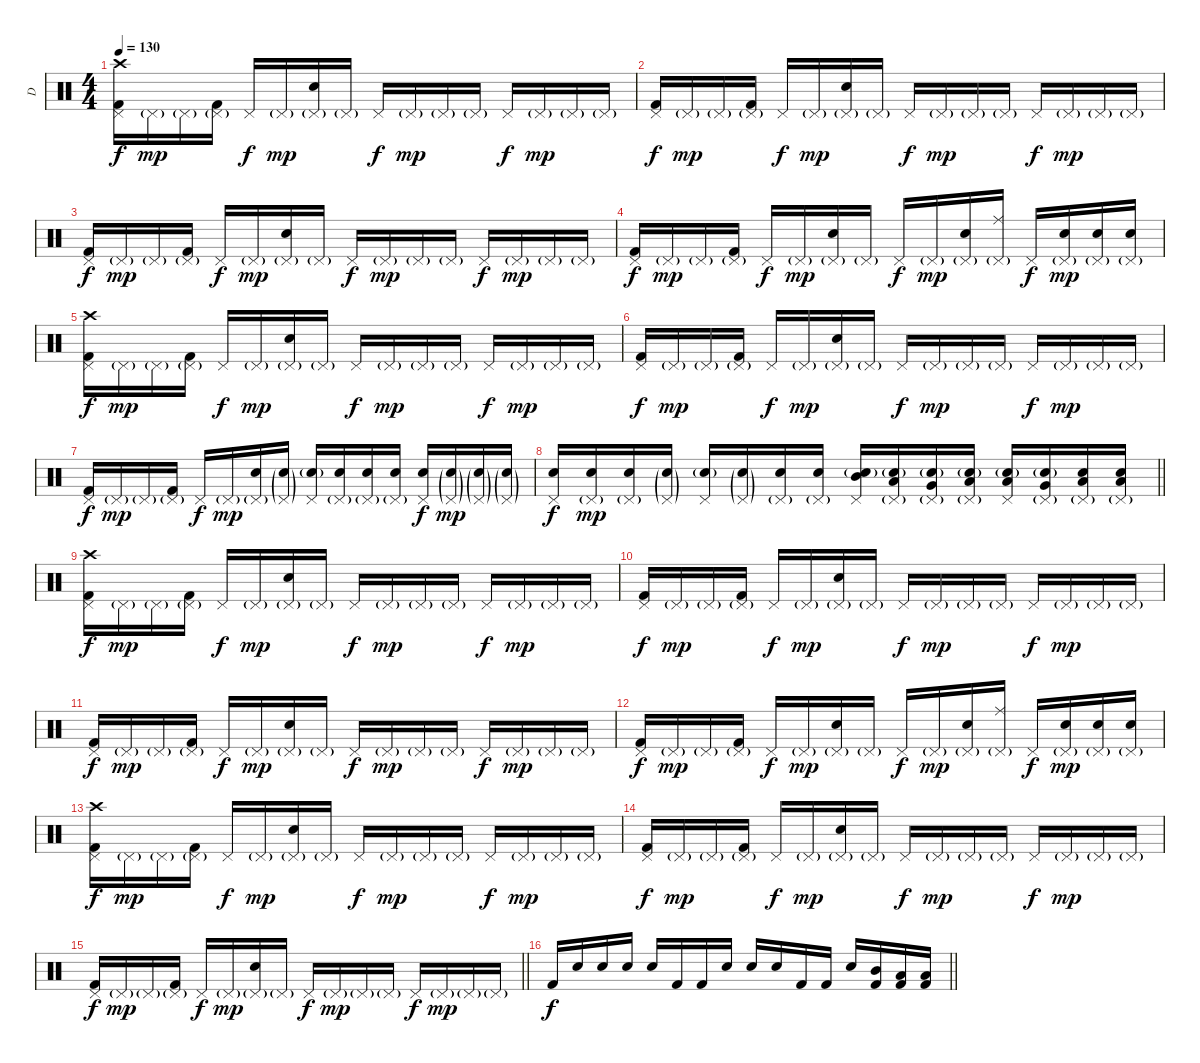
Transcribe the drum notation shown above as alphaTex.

\track ("D" "D") {instrument percussion}
\staff {score}
\articulation defaults
\ts (4 4)
\tempo 130
\clef neutral
\ks c
("Crash high (hit)" "Kick (hit) 2" "Pedal Hi-Hat (hit)").16{dy f} "Pedal Hi-Hat (hit)"{g}.16{dy mp} "Pedal Hi-Hat (hit)"{g}.16 ("Kick (hit) 2" "Pedal Hi-Hat (hit)"{g}).16 "Pedal Hi-Hat (hit)".16{dy f} "Pedal Hi-Hat (hit)"{g}.16{dy mp} ("Electric Snare (hit)" "Pedal Hi-Hat (hit)"{g}).16 "Pedal Hi-Hat (hit)"{g}.16 "Pedal Hi-Hat (hit)".16{dy f} "Pedal Hi-Hat (hit)"{g}.16{dy mp} "Pedal Hi-Hat (hit)"{g}.16 "Pedal Hi-Hat (hit)"{g}.16 "Pedal Hi-Hat (hit)".16{dy f} "Pedal Hi-Hat (hit)"{g}.16{dy mp} "Pedal Hi-Hat (hit)"{g}.16 "Pedal Hi-Hat (hit)"{g}.16 |
("Kick (hit) 2" "Pedal Hi-Hat (hit)").16{dy f} "Pedal Hi-Hat (hit)"{g}.16{dy mp} "Pedal Hi-Hat (hit)"{g}.16 ("Kick (hit) 2" "Pedal Hi-Hat (hit)"{g}).16 "Pedal Hi-Hat (hit)".16{dy f} "Pedal Hi-Hat (hit)"{g}.16{dy mp} ("Electric Snare (hit)" "Pedal Hi-Hat (hit)"{g}).16 "Pedal Hi-Hat (hit)"{g}.16 "Pedal Hi-Hat (hit)".16{dy f} "Pedal Hi-Hat (hit)"{g}.16{dy mp} "Pedal Hi-Hat (hit)"{g}.16 "Pedal Hi-Hat (hit)"{g}.16 "Pedal Hi-Hat (hit)".16{dy f} "Pedal Hi-Hat (hit)"{g}.16{dy mp} "Pedal Hi-Hat (hit)"{g}.16 "Pedal Hi-Hat (hit)"{g}.16 |
("Kick (hit) 2" "Pedal Hi-Hat (hit)").16{dy f} "Pedal Hi-Hat (hit)"{g}.16{dy mp} "Pedal Hi-Hat (hit)"{g}.16 ("Kick (hit) 2" "Pedal Hi-Hat (hit)"{g}).16 "Pedal Hi-Hat (hit)".16{dy f} "Pedal Hi-Hat (hit)"{g}.16{dy mp} ("Electric Snare (hit)" "Pedal Hi-Hat (hit)"{g}).16 "Pedal Hi-Hat (hit)"{g}.16 "Pedal Hi-Hat (hit)".16{dy f} "Pedal Hi-Hat (hit)"{g}.16{dy mp} "Pedal Hi-Hat (hit)"{g}.16 "Pedal Hi-Hat (hit)"{g}.16 "Pedal Hi-Hat (hit)".16{dy f} "Pedal Hi-Hat (hit)"{g}.16{dy mp} "Pedal Hi-Hat (hit)"{g}.16 "Pedal Hi-Hat (hit)"{g}.16 |
("Kick (hit) 2" "Pedal Hi-Hat (hit)").16{dy f} "Pedal Hi-Hat (hit)"{g}.16{dy mp} "Pedal Hi-Hat (hit)"{g}.16 ("Kick (hit) 2" "Pedal Hi-Hat (hit)"{g}).16 "Pedal Hi-Hat (hit)".16{dy f} "Pedal Hi-Hat (hit)"{g}.16{dy mp} ("Electric Snare (hit)" "Pedal Hi-Hat (hit)"{g}).16 "Pedal Hi-Hat (hit)"{g}.16 "Pedal Hi-Hat (hit)".16{dy f} "Pedal Hi-Hat (hit)"{g}.16{dy mp} ("Electric Snare (hit)" "Pedal Hi-Hat (hit)"{g}).16 ("Ride (middle)" "Pedal Hi-Hat (hit)"{g}).16 "Pedal Hi-Hat (hit)".16{dy f} ("Electric Snare (hit)" "Pedal Hi-Hat (hit)"{g}).16{dy mp} ("Electric Snare (hit)" "Pedal Hi-Hat (hit)"{g}).16 ("Electric Snare (hit)" "Pedal Hi-Hat (hit)"{g}).16 |
("Crash high (hit)" "Kick (hit) 2" "Pedal Hi-Hat (hit)").16{dy f} "Pedal Hi-Hat (hit)"{g}.16{dy mp} "Pedal Hi-Hat (hit)"{g}.16 ("Kick (hit) 2" "Pedal Hi-Hat (hit)"{g}).16 "Pedal Hi-Hat (hit)".16{dy f} "Pedal Hi-Hat (hit)"{g}.16{dy mp} ("Electric Snare (hit)" "Pedal Hi-Hat (hit)"{g}).16 "Pedal Hi-Hat (hit)"{g}.16 "Pedal Hi-Hat (hit)".16{dy f} "Pedal Hi-Hat (hit)"{g}.16{dy mp} "Pedal Hi-Hat (hit)"{g}.16 "Pedal Hi-Hat (hit)"{g}.16 "Pedal Hi-Hat (hit)".16{dy f} "Pedal Hi-Hat (hit)"{g}.16{dy mp} "Pedal Hi-Hat (hit)"{g}.16 "Pedal Hi-Hat (hit)"{g}.16 |
("Kick (hit) 2" "Pedal Hi-Hat (hit)").16{dy f} "Pedal Hi-Hat (hit)"{g}.16{dy mp} "Pedal Hi-Hat (hit)"{g}.16 ("Kick (hit) 2" "Pedal Hi-Hat (hit)"{g}).16 "Pedal Hi-Hat (hit)".16{dy f} "Pedal Hi-Hat (hit)"{g}.16{dy mp} ("Electric Snare (hit)" "Pedal Hi-Hat (hit)"{g}).16 "Pedal Hi-Hat (hit)"{g}.16 "Pedal Hi-Hat (hit)".16{dy f} "Pedal Hi-Hat (hit)"{g}.16{dy mp} "Pedal Hi-Hat (hit)"{g}.16 "Pedal Hi-Hat (hit)"{g}.16 "Pedal Hi-Hat (hit)".16{dy f} "Pedal Hi-Hat (hit)"{g}.16{dy mp} "Pedal Hi-Hat (hit)"{g}.16 "Pedal Hi-Hat (hit)"{g}.16 |
("Kick (hit) 2" "Pedal Hi-Hat (hit)").16{dy f} "Pedal Hi-Hat (hit)"{g}.16{dy mp} "Pedal Hi-Hat (hit)"{g}.16 ("Kick (hit) 2" "Pedal Hi-Hat (hit)"{g}).16 "Pedal Hi-Hat (hit)".16{dy f} "Pedal Hi-Hat (hit)"{g}.16{dy mp} ("Electric Snare (hit)" "Pedal Hi-Hat (hit)"{g}).16 ("Electric Snare (hit)"{g} "Pedal Hi-Hat (hit)"{g}).16 ("Electric Snare (hit)"{g} "Pedal Hi-Hat (hit)").16 ("Electric Snare (hit)" "Pedal Hi-Hat (hit)"{g}).16 ("Electric Snare (hit)" "Pedal Hi-Hat (hit)"{g}).16 ("Electric Snare (hit)" "Pedal Hi-Hat (hit)"{g}).16 ("Electric Snare (hit)" "Pedal Hi-Hat (hit)").16{dy f} ("Electric Snare (hit)"{g} "Pedal Hi-Hat (hit)"{g}).16{dy mp} ("Electric Snare (hit)"{g} "Pedal Hi-Hat (hit)"{g}).16 ("Electric Snare (hit)"{g} "Pedal Hi-Hat (hit)"{g}).16 |
\barLineRight lightlight
("Electric Snare (hit)" "Pedal Hi-Hat (hit)").16{dy f} ("Electric Snare (hit)" "Pedal Hi-Hat (hit)"{g}).16{dy mp} ("Electric Snare (hit)" "Pedal Hi-Hat (hit)"{g}).16 ("Electric Snare (hit)"{g} "Pedal Hi-Hat (hit)"{g}).16 ("Electric Snare (hit)"{g} "Pedal Hi-Hat (hit)").16 ("Electric Snare (hit)"{g} "Pedal Hi-Hat (hit)"{g}).16 ("Electric Snare (hit)" "Pedal Hi-Hat (hit)"{g}).16 ("Electric Snare (hit)" "Pedal Hi-Hat (hit)"{g}).16 ("Electric Snare (hit)"{g} "Mid Tom (hit)" "Pedal Hi-Hat (hit)").16 ("Electric Snare (hit)"{g} "Low Tom (hit)" "Pedal Hi-Hat (hit)"{g}).16 ("Electric Snare (hit)"{g} "Very Low Tom (hit)" "Pedal Hi-Hat (hit)"{g}).16 ("Electric Snare (hit)"{g} "Low Floor Tom (hit)" "Pedal Hi-Hat (hit)"{g}).16 ("Electric Snare (hit)"{g} "Low Tom (hit)" "Pedal Hi-Hat (hit)").16 ("Electric Snare (hit)"{g} "Very Low Tom (hit)" "Pedal Hi-Hat (hit)"{g}).16 ("Electric Snare (hit)" "Low Floor Tom (hit)" "Pedal Hi-Hat (hit)"{g}).16 ("Electric Snare (hit)" "Low Floor Tom (hit)" "Pedal Hi-Hat (hit)"{g}).16 |
("Crash high (hit)" "Kick (hit) 2" "Pedal Hi-Hat (hit)").16{dy f} "Pedal Hi-Hat (hit)"{g}.16{dy mp} "Pedal Hi-Hat (hit)"{g}.16 ("Kick (hit) 2" "Pedal Hi-Hat (hit)"{g}).16 "Pedal Hi-Hat (hit)".16{dy f} "Pedal Hi-Hat (hit)"{g}.16{dy mp} ("Electric Snare (hit)" "Pedal Hi-Hat (hit)"{g}).16 "Pedal Hi-Hat (hit)"{g}.16 "Pedal Hi-Hat (hit)".16{dy f} "Pedal Hi-Hat (hit)"{g}.16{dy mp} "Pedal Hi-Hat (hit)"{g}.16 "Pedal Hi-Hat (hit)"{g}.16 "Pedal Hi-Hat (hit)".16{dy f} "Pedal Hi-Hat (hit)"{g}.16{dy mp} "Pedal Hi-Hat (hit)"{g}.16 "Pedal Hi-Hat (hit)"{g}.16 |
("Kick (hit) 2" "Pedal Hi-Hat (hit)").16{dy f} "Pedal Hi-Hat (hit)"{g}.16{dy mp} "Pedal Hi-Hat (hit)"{g}.16 ("Kick (hit) 2" "Pedal Hi-Hat (hit)"{g}).16 "Pedal Hi-Hat (hit)".16{dy f} "Pedal Hi-Hat (hit)"{g}.16{dy mp} ("Electric Snare (hit)" "Pedal Hi-Hat (hit)"{g}).16 "Pedal Hi-Hat (hit)"{g}.16 "Pedal Hi-Hat (hit)".16{dy f} "Pedal Hi-Hat (hit)"{g}.16{dy mp} "Pedal Hi-Hat (hit)"{g}.16 "Pedal Hi-Hat (hit)"{g}.16 "Pedal Hi-Hat (hit)".16{dy f} "Pedal Hi-Hat (hit)"{g}.16{dy mp} "Pedal Hi-Hat (hit)"{g}.16 "Pedal Hi-Hat (hit)"{g}.16 |
("Kick (hit) 2" "Pedal Hi-Hat (hit)").16{dy f} "Pedal Hi-Hat (hit)"{g}.16{dy mp} "Pedal Hi-Hat (hit)"{g}.16 ("Kick (hit) 2" "Pedal Hi-Hat (hit)"{g}).16 "Pedal Hi-Hat (hit)".16{dy f} "Pedal Hi-Hat (hit)"{g}.16{dy mp} ("Electric Snare (hit)" "Pedal Hi-Hat (hit)"{g}).16 "Pedal Hi-Hat (hit)"{g}.16 "Pedal Hi-Hat (hit)".16{dy f} "Pedal Hi-Hat (hit)"{g}.16{dy mp} "Pedal Hi-Hat (hit)"{g}.16 "Pedal Hi-Hat (hit)"{g}.16 "Pedal Hi-Hat (hit)".16{dy f} "Pedal Hi-Hat (hit)"{g}.16{dy mp} "Pedal Hi-Hat (hit)"{g}.16 "Pedal Hi-Hat (hit)"{g}.16 |
("Kick (hit) 2" "Pedal Hi-Hat (hit)").16{dy f} "Pedal Hi-Hat (hit)"{g}.16{dy mp} "Pedal Hi-Hat (hit)"{g}.16 ("Kick (hit) 2" "Pedal Hi-Hat (hit)"{g}).16 "Pedal Hi-Hat (hit)".16{dy f} "Pedal Hi-Hat (hit)"{g}.16{dy mp} ("Electric Snare (hit)" "Pedal Hi-Hat (hit)"{g}).16 "Pedal Hi-Hat (hit)"{g}.16 "Pedal Hi-Hat (hit)".16{dy f} "Pedal Hi-Hat (hit)"{g}.16{dy mp} ("Electric Snare (hit)" "Pedal Hi-Hat (hit)"{g}).16 ("Ride (middle)" "Pedal Hi-Hat (hit)"{g}).16 "Pedal Hi-Hat (hit)".16{dy f} ("Electric Snare (hit)" "Pedal Hi-Hat (hit)"{g}).16{dy mp} ("Electric Snare (hit)" "Pedal Hi-Hat (hit)"{g}).16 ("Electric Snare (hit)" "Pedal Hi-Hat (hit)"{g}).16 |
("Crash high (hit)" "Kick (hit) 2" "Pedal Hi-Hat (hit)").16{dy f} "Pedal Hi-Hat (hit)"{g}.16{dy mp} "Pedal Hi-Hat (hit)"{g}.16 ("Kick (hit) 2" "Pedal Hi-Hat (hit)"{g}).16 "Pedal Hi-Hat (hit)".16{dy f} "Pedal Hi-Hat (hit)"{g}.16{dy mp} ("Electric Snare (hit)" "Pedal Hi-Hat (hit)"{g}).16 "Pedal Hi-Hat (hit)"{g}.16 "Pedal Hi-Hat (hit)".16{dy f} "Pedal Hi-Hat (hit)"{g}.16{dy mp} "Pedal Hi-Hat (hit)"{g}.16 "Pedal Hi-Hat (hit)"{g}.16 "Pedal Hi-Hat (hit)".16{dy f} "Pedal Hi-Hat (hit)"{g}.16{dy mp} "Pedal Hi-Hat (hit)"{g}.16 "Pedal Hi-Hat (hit)"{g}.16 |
("Kick (hit) 2" "Pedal Hi-Hat (hit)").16{dy f} "Pedal Hi-Hat (hit)"{g}.16{dy mp} "Pedal Hi-Hat (hit)"{g}.16 ("Kick (hit) 2" "Pedal Hi-Hat (hit)"{g}).16 "Pedal Hi-Hat (hit)".16{dy f} "Pedal Hi-Hat (hit)"{g}.16{dy mp} ("Electric Snare (hit)" "Pedal Hi-Hat (hit)"{g}).16 "Pedal Hi-Hat (hit)"{g}.16 "Pedal Hi-Hat (hit)".16{dy f} "Pedal Hi-Hat (hit)"{g}.16{dy mp} "Pedal Hi-Hat (hit)"{g}.16 "Pedal Hi-Hat (hit)"{g}.16 "Pedal Hi-Hat (hit)".16{dy f} "Pedal Hi-Hat (hit)"{g}.16{dy mp} "Pedal Hi-Hat (hit)"{g}.16 "Pedal Hi-Hat (hit)"{g}.16 |
\barLineRight lightlight
("Kick (hit) 2" "Pedal Hi-Hat (hit)").16{dy f} "Pedal Hi-Hat (hit)"{g}.16{dy mp} "Pedal Hi-Hat (hit)"{g}.16 ("Kick (hit) 2" "Pedal Hi-Hat (hit)"{g}).16 "Pedal Hi-Hat (hit)".16{dy f} "Pedal Hi-Hat (hit)"{g}.16{dy mp} ("Electric Snare (hit)" "Pedal Hi-Hat (hit)"{g}).16 "Pedal Hi-Hat (hit)"{g}.16 "Pedal Hi-Hat (hit)".16{dy f} "Pedal Hi-Hat (hit)"{g}.16{dy mp} "Pedal Hi-Hat (hit)"{g}.16 "Pedal Hi-Hat (hit)"{g}.16 "Pedal Hi-Hat (hit)".16{dy f} "Pedal Hi-Hat (hit)"{g}.16{dy mp} "Pedal Hi-Hat (hit)"{g}.16 "Pedal Hi-Hat (hit)"{g}.16 |
\barLineRight lightlight "Kick (hit) 2".16{dy f} "Electric Snare (hit)".16 "Electric Snare (hit)".16 "Electric Snare (hit)".16 "Electric Snare (hit)".16 "Kick (hit) 2".16 "Kick (hit) 2".16 "Electric Snare (hit)".16 "Electric Snare (hit)".16 "Electric Snare (hit)".16 "Kick (hit) 2".16 "Kick (hit) 2".16 "Electric Snare (hit)".16
("Mid Tom (hit)" "Kick (hit) 2").16 ("Low Tom (hit)" "Kick (hit) 2").16 ("Low Floor Tom (hit)" "Kick (hit) 2").16
